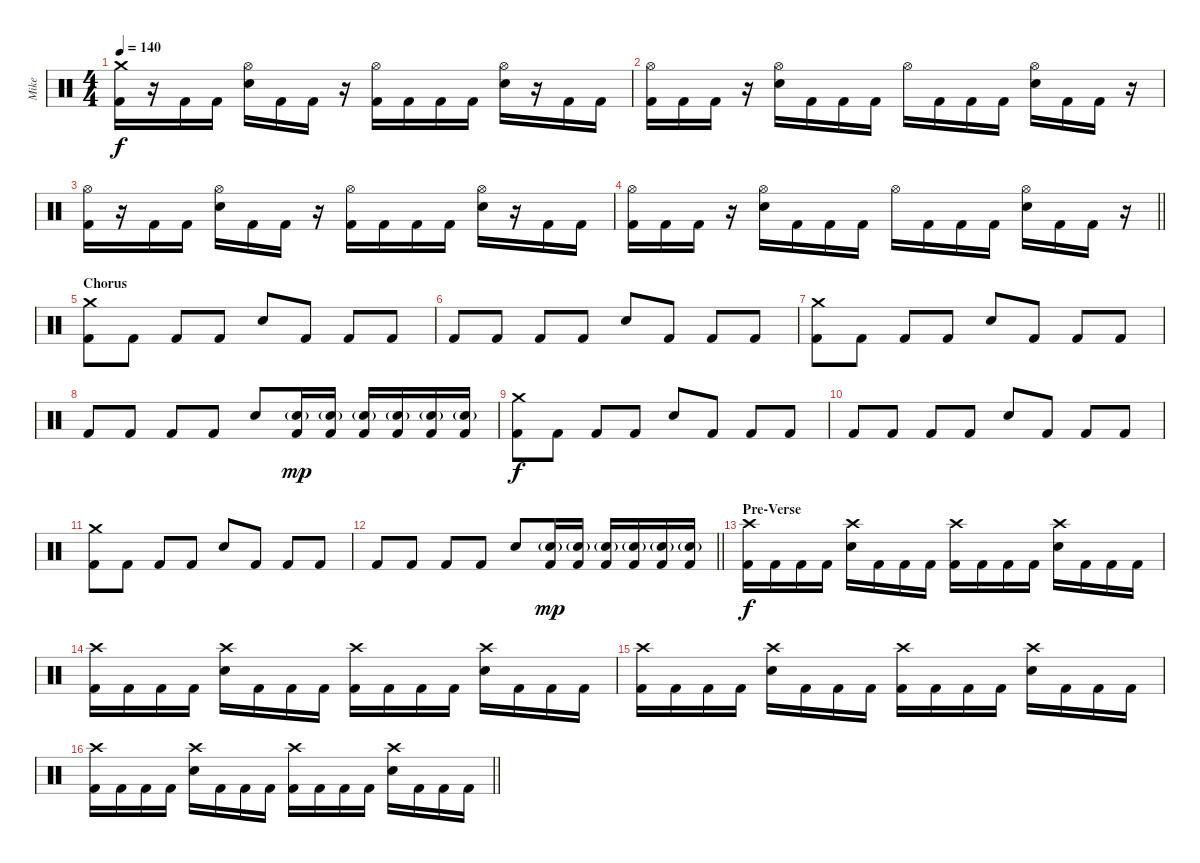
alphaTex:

\track ("Mike" "Mike") {instrument percussion}
\staff {score}
\articulation defaults
\ts (4 4)
\tempo 140
\clef neutral
\ks c
("Crash medium (hit)" "Kick (hit) 2").16{dy f} r.16 "Kick (hit) 2".16 "Kick (hit) 2".16 ("Hi-Hat (open)" "Electric Snare (hit)").16 "Kick (hit) 2".16 "Kick (hit) 2".16 r.16 ("Hi-Hat (open)" "Kick (hit) 2").16 "Kick (hit) 2".16 "Kick (hit) 2".16 "Kick (hit) 2".16 ("Hi-Hat (open)" "Electric Snare (hit)").16 r.16 "Kick (hit) 2".16 "Kick (hit) 2".16 |
("Hi-Hat (open)" "Kick (hit) 2").16 "Kick (hit) 2".16 "Kick (hit) 2".16 r.16 ("Hi-Hat (open)" "Electric Snare (hit)").16 "Kick (hit) 2".16 "Kick (hit) 2".16 "Kick (hit) 2".16 "Hi-Hat (open)".16 "Kick (hit) 2".16 "Kick (hit) 2".16 "Kick (hit) 2".16 ("Hi-Hat (open)" "Electric Snare (hit)").16 "Kick (hit) 2".16 "Kick (hit) 2".16 r.16 |
("Hi-Hat (open)" "Kick (hit) 2").16 r.16 "Kick (hit) 2".16 "Kick (hit) 2".16 ("Hi-Hat (open)" "Electric Snare (hit)").16 "Kick (hit) 2".16 "Kick (hit) 2".16 r.16 ("Hi-Hat (open)" "Kick (hit) 2").16 "Kick (hit) 2".16 "Kick (hit) 2".16 "Kick (hit) 2".16 ("Hi-Hat (open)" "Electric Snare (hit)").16 r.16 "Kick (hit) 2".16 "Kick (hit) 2".16 |
\barLineRight lightlight
("Hi-Hat (open)" "Kick (hit) 2").16 "Kick (hit) 2".16 "Kick (hit) 2".16 r.16 ("Hi-Hat (open)" "Electric Snare (hit)").16 "Kick (hit) 2".16 "Kick (hit) 2".16 "Kick (hit) 2".16 "Hi-Hat (open)".16 "Kick (hit) 2".16 "Kick (hit) 2".16 "Kick (hit) 2".16 ("Hi-Hat (open)" "Electric Snare (hit)").16 "Kick (hit) 2".16 "Kick (hit) 2".16 r.16 |
\section ("" "Chorus")
("Crash medium (hit)" "Kick (hit) 2").8 "Kick (hit) 2".8 "Kick (hit) 2".8 "Kick (hit) 2".8 "Electric Snare (hit)".8 "Kick (hit) 2".8 "Kick (hit) 2".8 "Kick (hit) 2".8 |
"Kick (hit) 2".8 "Kick (hit) 2".8 "Kick (hit) 2".8 "Kick (hit) 2".8 "Electric Snare (hit)".8 "Kick (hit) 2".8 "Kick (hit) 2".8 "Kick (hit) 2".8 |
("Crash medium (hit)" "Kick (hit) 2").8 "Kick (hit) 2".8 "Kick (hit) 2".8 "Kick (hit) 2".8 "Electric Snare (hit)".8 "Kick (hit) 2".8 "Kick (hit) 2".8 "Kick (hit) 2".8 |
"Kick (hit) 2".8 "Kick (hit) 2".8 "Kick (hit) 2".8 "Kick (hit) 2".8 "Electric Snare (hit)".8 ("Electric Snare (hit)"{g} "Kick (hit) 2").16{dy mp} ("Electric Snare (hit)"{g} "Kick (hit) 2").16 ("Electric Snare (hit)"{g} "Kick (hit) 2").16 ("Electric Snare (hit)"{g} "Kick (hit) 2").16 ("Electric Snare (hit)"{g} "Kick (hit) 2").16 ("Electric Snare (hit)"{g} "Kick (hit) 2").16 |
("Crash medium (hit)" "Kick (hit) 2").8{dy f} "Kick (hit) 2".8 "Kick (hit) 2".8 "Kick (hit) 2".8 "Electric Snare (hit)".8 "Kick (hit) 2".8 "Kick (hit) 2".8 "Kick (hit) 2".8 |
"Kick (hit) 2".8 "Kick (hit) 2".8 "Kick (hit) 2".8 "Kick (hit) 2".8 "Electric Snare (hit)".8 "Kick (hit) 2".8 "Kick (hit) 2".8 "Kick (hit) 2".8 |
("Crash medium (hit)" "Kick (hit) 2").8 "Kick (hit) 2".8 "Kick (hit) 2".8 "Kick (hit) 2".8 "Electric Snare (hit)".8 "Kick (hit) 2".8 "Kick (hit) 2".8 "Kick (hit) 2".8 |
\barLineRight lightlight "Kick (hit) 2".8 "Kick (hit) 2".8 "Kick (hit) 2".8 "Kick (hit) 2".8 "Electric Snare (hit)".8
("Electric Snare (hit)"{g} "Kick (hit) 2").16{dy mp} ("Electric Snare (hit)"{g} "Kick (hit) 2").16 ("Electric Snare (hit)"{g} "Kick (hit) 2").16 ("Electric Snare (hit)"{g} "Kick (hit) 2").16 ("Electric Snare (hit)"{g} "Kick (hit) 2").16 ("Electric Snare (hit)"{g} "Kick (hit) 2").16 |
\section ("" "Pre-Verse")
("Crash high (hit)" "Kick (hit) 2").16{dy f} "Kick (hit) 2".16 "Kick (hit) 2".16 "Kick (hit) 2".16 ("Crash high (hit)" "Electric Snare (hit)").16 "Kick (hit) 2".16 "Kick (hit) 2".16 "Kick (hit) 2".16 ("Crash high (hit)" "Kick (hit) 2").16 "Kick (hit) 2".16 "Kick (hit) 2".16 "Kick (hit) 2".16 ("Crash high (hit)" "Electric Snare (hit)").16 "Kick (hit) 2".16 "Kick (hit) 2".16 "Kick (hit) 2".16 |
("Crash high (hit)" "Kick (hit) 2").16 "Kick (hit) 2".16 "Kick (hit) 2".16 "Kick (hit) 2".16 ("Crash high (hit)" "Electric Snare (hit)").16 "Kick (hit) 2".16 "Kick (hit) 2".16 "Kick (hit) 2".16 ("Crash high (hit)" "Kick (hit) 2").16 "Kick (hit) 2".16 "Kick (hit) 2".16 "Kick (hit) 2".16 ("Crash high (hit)" "Electric Snare (hit)").16 "Kick (hit) 2".16 "Kick (hit) 2".16 "Kick (hit) 2".16 |
("Crash high (hit)" "Kick (hit) 2").16 "Kick (hit) 2".16 "Kick (hit) 2".16 "Kick (hit) 2".16 ("Crash high (hit)" "Electric Snare (hit)").16 "Kick (hit) 2".16 "Kick (hit) 2".16 "Kick (hit) 2".16 ("Crash high (hit)" "Kick (hit) 2").16 "Kick (hit) 2".16 "Kick (hit) 2".16 "Kick (hit) 2".16 ("Crash high (hit)" "Electric Snare (hit)").16 "Kick (hit) 2".16 "Kick (hit) 2".16 "Kick (hit) 2".16 |
\barLineRight lightlight
("Crash high (hit)" "Kick (hit) 2").16 "Kick (hit) 2".16 "Kick (hit) 2".16 "Kick (hit) 2".16 ("Crash high (hit)" "Electric Snare (hit)").16 "Kick (hit) 2".16 "Kick (hit) 2".16 "Kick (hit) 2".16 ("Crash high (hit)" "Kick (hit) 2").16 "Kick (hit) 2".16 "Kick (hit) 2".16 "Kick (hit) 2".16 ("Crash high (hit)" "Electric Snare (hit)").16 "Kick (hit) 2".16 "Kick (hit) 2".16 "Kick (hit) 2".16
